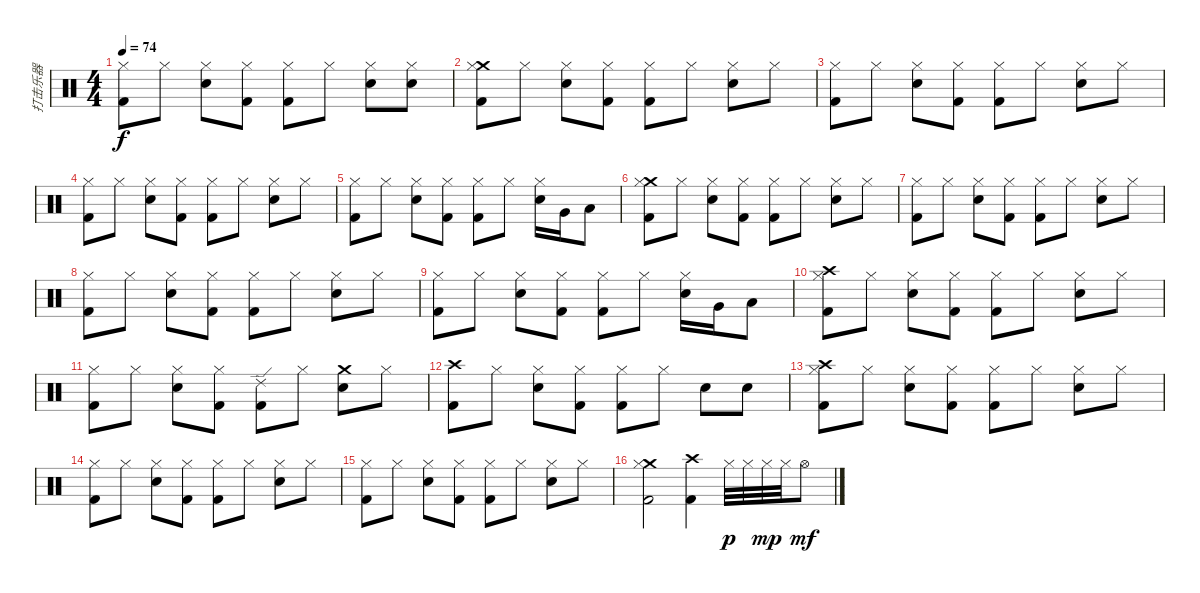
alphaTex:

\track ("打击乐器" "打击乐器") {instrument percussion}
\staff {score}
\articulation defaults
\ts (4 4)
\tempo 74
\clef neutral
\ks c
("Hi-Hat (closed)" "Kick (hit) 2").8{dy f} "Hi-Hat (closed)".8 ("Electric Snare (hit)" "Hi-Hat (closed)").8 ("Kick (hit) 2" "Hi-Hat (closed)").8 ("Kick (hit) 2" "Hi-Hat (closed)").8 "Hi-Hat (closed)".8 ("Electric Snare (hit)" "Hi-Hat (closed)").8 ("Electric Snare (hit)" "Hi-Hat (closed)").8 |
("Crash medium (hit)" "Hi-Hat (closed)" "Kick (hit) 2").8 "Hi-Hat (closed)".8 ("Electric Snare (hit)" "Hi-Hat (closed)").8 ("Kick (hit) 2" "Hi-Hat (closed)").8 ("Kick (hit) 2" "Hi-Hat (closed)").8 "Hi-Hat (closed)".8 ("Electric Snare (hit)" "Hi-Hat (closed)").8 "Hi-Hat (closed)".8 |
("Hi-Hat (closed)" "Kick (hit) 2").8 "Hi-Hat (closed)".8 ("Electric Snare (hit)" "Hi-Hat (closed)").8 ("Kick (hit) 2" "Hi-Hat (closed)").8 ("Kick (hit) 2" "Hi-Hat (closed)").8 "Hi-Hat (closed)".8 ("Electric Snare (hit)" "Hi-Hat (closed)").8 "Hi-Hat (closed)".8 |
("Hi-Hat (closed)" "Kick (hit) 2").8 "Hi-Hat (closed)".8 ("Electric Snare (hit)" "Hi-Hat (closed)").8 ("Kick (hit) 2" "Hi-Hat (closed)").8 ("Kick (hit) 2" "Hi-Hat (closed)").8 "Hi-Hat (closed)".8 ("Electric Snare (hit)" "Hi-Hat (closed)").8 "Hi-Hat (closed)".8 |
("Hi-Hat (closed)" "Kick (hit) 2").8 "Hi-Hat (closed)".8 ("Electric Snare (hit)" "Hi-Hat (closed)").8 ("Kick (hit) 2" "Hi-Hat (closed)").8 ("Kick (hit) 2" "Hi-Hat (closed)").8 "Hi-Hat (closed)".8 ("Electric Snare (hit)" "Hi-Hat (closed)").16 "Very Low Tom (hit)".16 "Low Floor Tom (hit)".8 |
("Crash medium (hit)" "Hi-Hat (closed)" "Kick (hit) 2").8 "Hi-Hat (closed)".8 ("Electric Snare (hit)" "Hi-Hat (closed)").8 ("Kick (hit) 2" "Hi-Hat (closed)").8 ("Kick (hit) 2" "Hi-Hat (closed)").8 "Hi-Hat (closed)".8 ("Electric Snare (hit)" "Hi-Hat (closed)").8 "Hi-Hat (closed)".8 |
("Hi-Hat (closed)" "Kick (hit) 2").8 "Hi-Hat (closed)".8 ("Electric Snare (hit)" "Hi-Hat (closed)").8 ("Kick (hit) 2" "Hi-Hat (closed)").8 ("Kick (hit) 2" "Hi-Hat (closed)").8 "Hi-Hat (closed)".8 ("Electric Snare (hit)" "Hi-Hat (closed)").8 "Hi-Hat (closed)".8 |
("Hi-Hat (closed)" "Kick (hit) 2").8 "Hi-Hat (closed)".8 ("Electric Snare (hit)" "Hi-Hat (closed)").8 ("Kick (hit) 2" "Hi-Hat (closed)").8 ("Kick (hit) 2" "Hi-Hat (closed)").8 "Hi-Hat (closed)".8 ("Electric Snare (hit)" "Hi-Hat (closed)").8 "Hi-Hat (closed)".8 |
("Hi-Hat (closed)" "Kick (hit) 2").8 "Hi-Hat (closed)".8 ("Electric Snare (hit)" "Hi-Hat (closed)").8 ("Kick (hit) 2" "Hi-Hat (closed)").8 ("Kick (hit) 2" "Hi-Hat (closed)").8 "Hi-Hat (closed)".8 ("Electric Snare (hit)" "Hi-Hat (closed)").16 "Very Low Tom (hit)".16 "Low Floor Tom (hit)".8 |
("Crash high (hit)" "Hi-Hat (closed)" "Kick (hit) 2").8 "Hi-Hat (closed)".8 ("Electric Snare (hit)" "Hi-Hat (closed)").8 ("Kick (hit) 2" "Hi-Hat (closed)").8 ("Kick (hit) 2" "Hi-Hat (closed)").8 "Hi-Hat (closed)".8 ("Electric Snare (hit)" "Hi-Hat (closed)").8 "Hi-Hat (closed)".8 |
("Hi-Hat (closed)" "Kick (hit) 2").8 "Hi-Hat (closed)".8 ("Electric Snare (hit)" "Hi-Hat (closed)").8 ("Kick (hit) 2" "Hi-Hat (closed)").8 ("Ride (edge) 2" "Kick (hit) 2").8 "Hi-Hat (closed)".8 ("Crash medium (hit)" "Electric Snare (hit)").8 "Hi-Hat (closed)".8 |
("Crash high (hit)" "Kick (hit) 2").8 "Hi-Hat (closed)".8 ("Electric Snare (hit)" "Hi-Hat (closed)").8 ("Kick (hit) 2" "Hi-Hat (closed)").8 ("Kick (hit) 2" "Hi-Hat (closed)").8 "Hi-Hat (closed)".8 "Electric Snare (hit)".8 "Electric Snare (hit)".8 |
("Crash high (hit)" "Hi-Hat (closed)" "Kick (hit) 2").8 "Hi-Hat (closed)".8 ("Electric Snare (hit)" "Hi-Hat (closed)").8 ("Kick (hit) 2" "Hi-Hat (closed)").8 ("Kick (hit) 2" "Hi-Hat (closed)").8 "Hi-Hat (closed)".8 ("Electric Snare (hit)" "Hi-Hat (closed)").8 "Hi-Hat (closed)".8 |
("Hi-Hat (closed)" "Kick (hit) 2").8 "Hi-Hat (closed)".8 ("Electric Snare (hit)" "Hi-Hat (closed)").8 ("Kick (hit) 2" "Hi-Hat (closed)").8 ("Kick (hit) 2" "Hi-Hat (closed)").8 "Hi-Hat (closed)".8 ("Electric Snare (hit)" "Hi-Hat (closed)").8 "Hi-Hat (closed)".8 |
("Hi-Hat (closed)" "Kick (hit) 2").8 "Hi-Hat (closed)".8 ("Electric Snare (hit)" "Hi-Hat (closed)").8 ("Kick (hit) 2" "Hi-Hat (closed)").8 ("Kick (hit) 2" "Hi-Hat (closed)").8 "Hi-Hat (closed)".8 ("Electric Snare (hit)" "Hi-Hat (closed)").8 "Hi-Hat (closed)".8 |
("Crash medium (hit)" "Hi-Hat (closed)" "Kick (hit) 2").2 ("Crash high (hit)" "Kick (hit) 2").4 "Hi-Hat (closed)".32{dy p} "Hi-Hat (closed)".32 "Hi-Hat (closed)".32{dy mp} "Hi-Hat (closed)".32 "Hi-Hat (open)".8{dy mf}
